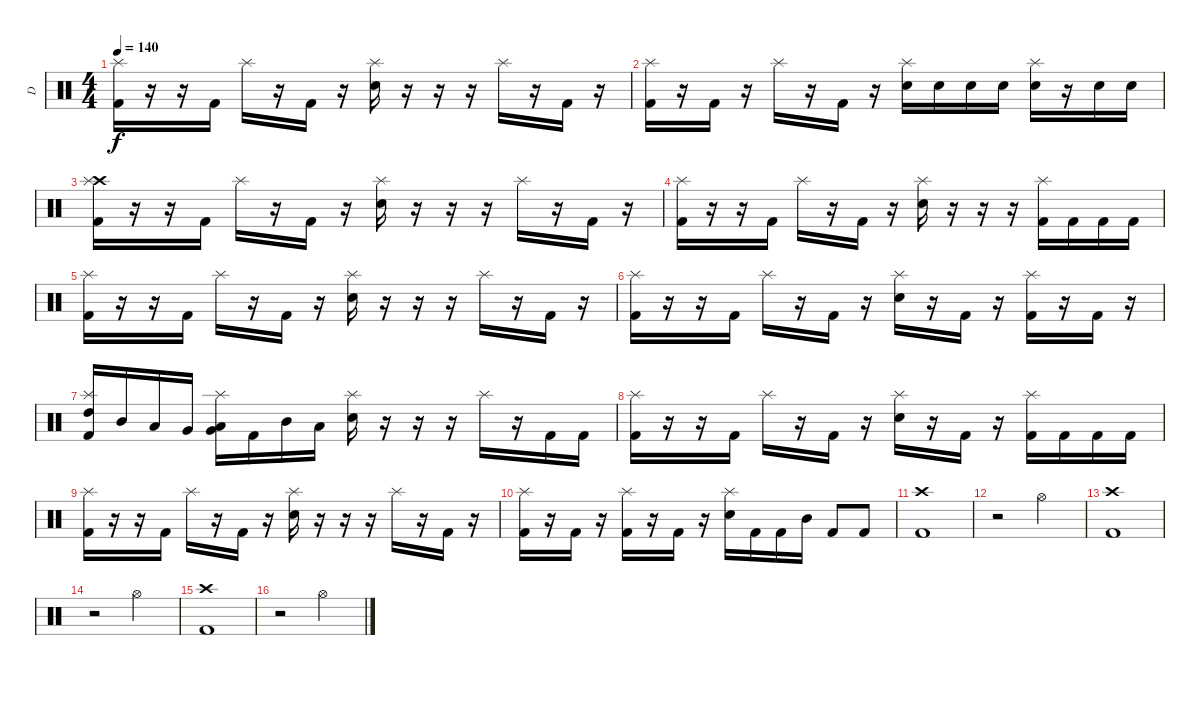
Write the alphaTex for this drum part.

\track ("D" "D") {instrument percussion}
\staff {score}
\articulation defaults
\ts (4 4)
\tempo 140
\clef neutral
\ks c
("Kick (hit) 2" "Splash (hit)").16{dy f} r.16 r.16 "Kick (hit) 2".16 "Splash (hit)".16 r.16 "Kick (hit) 2".16 r.16 ("Electric Snare (hit)" "Splash (hit)").16 r.16 r.16 r.16 "Splash (hit)".16 r.16 "Kick (hit) 2".16 r.16 |
("Kick (hit) 2" "Splash (hit)").16 r.16 "Kick (hit) 2".16 r.16 "Splash (hit)".16 r.16 "Kick (hit) 2".16 r.16 ("Electric Snare (hit)" "Splash (hit)").16 "Electric Snare (hit)".16 "Electric Snare (hit)".16 "Electric Snare (hit)".16 ("Electric Snare (hit)" "Splash (hit)").16 r.16 "Electric Snare (hit)".16 "Electric Snare (hit)".16 |
("Crash high (hit)" "Kick (hit) 2" "Splash (hit)").16 r.16 r.16 "Kick (hit) 2".16 "Splash (hit)".16 r.16 "Kick (hit) 2".16 r.16 ("Electric Snare (hit)" "Splash (hit)").16 r.16 r.16 r.16 "Splash (hit)".16 r.16 "Kick (hit) 2".16 r.16 |
("Kick (hit) 2" "Splash (hit)").16 r.16 r.16 "Kick (hit) 2".16 "Splash (hit)".16 r.16 "Kick (hit) 2".16 r.16 ("Electric Snare (hit)" "Splash (hit)").16 r.16 r.16 r.16 ("Kick (hit) 2" "Splash (hit)").16 "Kick (hit) 2".16 "Kick (hit) 2".16 "Kick (hit) 2".16 |
("Kick (hit) 2" "Splash (hit)").16 r.16 r.16 "Kick (hit) 2".16 "Splash (hit)".16 r.16 "Kick (hit) 2".16 r.16 ("Electric Snare (hit)" "Splash (hit)").16 r.16 r.16 r.16 "Splash (hit)".16 r.16 "Kick (hit) 2".16 r.16 |
("Kick (hit) 2" "Splash (hit)").16 r.16 r.16 "Kick (hit) 2".16 "Splash (hit)".16 r.16 "Kick (hit) 2".16 r.16 ("Electric Snare (hit)" "Splash (hit)").16 r.16 "Kick (hit) 2".16 r.16 ("Kick (hit) 2" "Splash (hit)").16 r.16 "Kick (hit) 2".16 r.16 |
("High Tom (hit)" "Kick (hit) 2" "Splash (hit)").16 "Mid Tom (hit)".16 "Low Tom (hit)".16 "Very Low Tom (hit)".16 ("Low Tom (hit)" "Very Low Tom (hit)" "Splash (hit)").16 "Kick (hit) 2".16 "Mid Tom (hit)".16 "Low Tom (hit)".16 ("Electric Snare (hit)" "Splash (hit)").16 r.16 r.16 r.16 "Splash (hit)".16 r.16 "Kick (hit) 2".16 "Kick (hit) 2".16 |
("Kick (hit) 2" "Splash (hit)").16 r.16 r.16 "Kick (hit) 2".16 "Splash (hit)".16 r.16 "Kick (hit) 2".16 r.16 ("Electric Snare (hit)" "Splash (hit)").16 r.16 "Kick (hit) 2".16 r.16 ("Kick (hit) 2" "Splash (hit)").16 "Kick (hit) 2".16 "Kick (hit) 2".16 "Kick (hit) 2".16 |
("Kick (hit) 2" "Splash (hit)").16 r.16 r.16 "Kick (hit) 2".16 "Splash (hit)".16 r.16 "Kick (hit) 2".16 r.16 ("Electric Snare (hit)" "Splash (hit)").16 r.16 r.16 r.16 "Splash (hit)".16 r.16 "Kick (hit) 2".16 r.16 |
("Kick (hit) 2" "Splash (hit)").16 r.16 "Kick (hit) 2".16 r.16 ("Kick (hit) 2" "Splash (hit)").16 r.16 "Kick (hit) 2".16 r.16 ("Electric Snare (hit)" "Splash (hit)").16 "Kick (hit) 2".16 "Kick (hit) 2".16 "Mid Tom (hit)".16 "Kick (hit) 2".8 "Kick (hit) 2".8 |
("Crash high (hit)" "Kick (hit) 2").1 |
r.2 "Hi-Hat (open)".2 |
("Crash high (hit)" "Kick (hit) 2").1 |
r.2 "Hi-Hat (open)".2 |
("Crash high (hit)" "Kick (hit) 2").1 |
r.2 "Hi-Hat (open)".2
